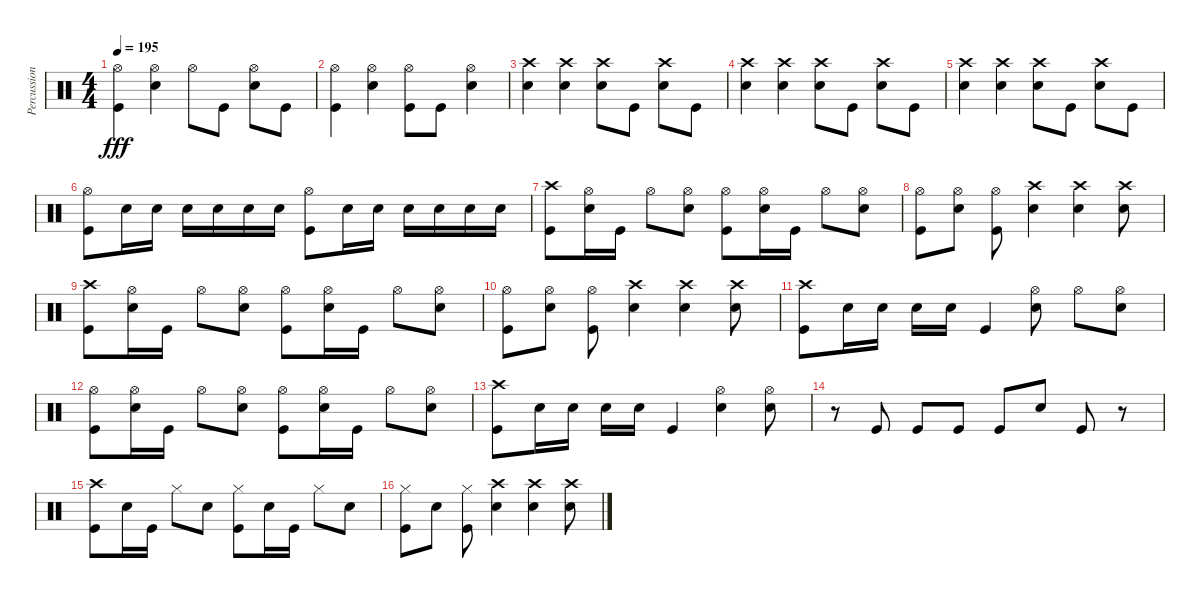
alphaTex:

\track ("Percussions" "Percussion") {instrument percussion}
\staff {score}
\articulation defaults
\ts (4 4)
\tempo 195
\clef neutral
\ks c
("Hi-Hat (open)" "Kick (hit)").4{dy fff} ("Hi-Hat (open)" "Electric Snare (hit)").4 "Hi-Hat (open)".8 "Kick (hit)".8 ("Hi-Hat (open)" "Electric Snare (hit)").8 "Kick (hit)".8 |
("Hi-Hat (open)" "Kick (hit)").4 ("Hi-Hat (open)" "Electric Snare (hit)").4 ("Hi-Hat (open)" "Kick (hit)").8 "Kick (hit)".8 ("Hi-Hat (open)" "Electric Snare (hit)").4 |
("Crash high (hit)" "Electric Snare (hit)").4 ("Crash high (hit)" "Electric Snare (hit)").4 ("Crash high (hit)" "Electric Snare (hit)").8 "Kick (hit)".8 ("Crash high (hit)" "Electric Snare (hit)").8 "Kick (hit)".8 |
("Crash high (hit)" "Electric Snare (hit)").4 ("Crash high (hit)" "Electric Snare (hit)").4 ("Crash high (hit)" "Electric Snare (hit)").8 "Kick (hit)".8 ("Crash high (hit)" "Electric Snare (hit)").8 "Kick (hit)".8 |
("Crash high (hit)" "Electric Snare (hit)").4 ("Crash high (hit)" "Electric Snare (hit)").4 ("Crash high (hit)" "Electric Snare (hit)").8 "Kick (hit)".8 ("Crash high (hit)" "Electric Snare (hit)").8 "Kick (hit)".8 |
("Hi-Hat (open)" "Kick (hit)").8 "Electric Snare (hit)".16 "Electric Snare (hit)".16 "Electric Snare (hit)".16 "Electric Snare (hit)".16 "Electric Snare (hit)".16 "Electric Snare (hit)".16 ("Hi-Hat (open)" "Kick (hit)").8 "Electric Snare (hit)".16 "Electric Snare (hit)".16 "Electric Snare (hit)".16 "Electric Snare (hit)".16 "Electric Snare (hit)".16 "Electric Snare (hit)".16 |
("Crash high (hit)" "Kick (hit)").8 ("Hi-Hat (open)" "Electric Snare (hit)").16 "Kick (hit)".16 "Hi-Hat (open)".8 ("Hi-Hat (open)" "Electric Snare (hit)").8 ("Hi-Hat (open)" "Kick (hit)").8 ("Hi-Hat (open)" "Electric Snare (hit)").16 "Kick (hit)".16 "Hi-Hat (open)".8 ("Hi-Hat (open)" "Electric Snare (hit)").8 |
("Hi-Hat (open)" "Kick (hit)").8 ("Hi-Hat (open)" "Electric Snare (hit)").8 ("Hi-Hat (open)" "Kick (hit)").8 ("Crash high (hit)" "Electric Snare (hit)").4 ("Crash high (hit)" "Electric Snare (hit)").4 ("Crash high (hit)" "Electric Snare (hit)").8 |
("Crash high (hit)" "Kick (hit)").8 ("Hi-Hat (open)" "Electric Snare (hit)").16 "Kick (hit)".16 "Hi-Hat (open)".8 ("Hi-Hat (open)" "Electric Snare (hit)").8 ("Hi-Hat (open)" "Kick (hit)").8 ("Hi-Hat (open)" "Electric Snare (hit)").16 "Kick (hit)".16 "Hi-Hat (open)".8 ("Hi-Hat (open)" "Electric Snare (hit)").8 |
("Hi-Hat (open)" "Kick (hit)").8 ("Hi-Hat (open)" "Electric Snare (hit)").8 ("Hi-Hat (open)" "Kick (hit)").8 ("Crash high (hit)" "Electric Snare (hit)").4 ("Crash high (hit)" "Electric Snare (hit)").4 ("Crash high (hit)" "Electric Snare (hit)").8 |
("Crash high (hit)" "Kick (hit)").8 "Electric Snare (hit)".16 "Electric Snare (hit)".16 "Electric Snare (hit)".16 "Electric Snare (hit)".16 "Kick (hit)".4 ("Hi-Hat (open)" "Electric Snare (hit)").8 "Hi-Hat (open)".8 ("Hi-Hat (open)" "Electric Snare (hit)").8 |
("Hi-Hat (open)" "Kick (hit)").8 ("Hi-Hat (open)" "Electric Snare (hit)").16 "Kick (hit)".16 "Hi-Hat (open)".8 ("Hi-Hat (open)" "Electric Snare (hit)").8 ("Hi-Hat (open)" "Kick (hit)").8 ("Hi-Hat (open)" "Electric Snare (hit)").16 "Kick (hit)".16 "Hi-Hat (open)".8 ("Hi-Hat (open)" "Electric Snare (hit)").8 |
("Crash high (hit)" "Kick (hit)").8 "Electric Snare (hit)".16 "Electric Snare (hit)".16 "Electric Snare (hit)".16 "Electric Snare (hit)".16 "Kick (hit)".4 ("Hi-Hat (open)" "Electric Snare (hit)").4 ("Hi-Hat (open)" "Electric Snare (hit)").8 |
r.8 "Kick (hit)".8 "Kick (hit)".8 "Kick (hit)".8 "Kick (hit)".8 "Electric Snare (hit)".8 "Kick (hit)".8 r.8 |
("Crash high (hit)" "Kick (hit)").8 "Electric Snare (hit)".16 "Kick (hit)".16 "Hi-Hat (closed)".8 "Electric Snare (hit)".8 ("Hi-Hat (closed)" "Kick (hit)").8 "Electric Snare (hit)".16 "Kick (hit)".16 "Hi-Hat (closed)".8 "Electric Snare (hit)".8 |
("Hi-Hat (closed)" "Kick (hit)").8 "Electric Snare (hit)".8 ("Hi-Hat (closed)" "Kick (hit)").8 ("Crash high (hit)" "Electric Snare (hit)").4 ("Crash high (hit)" "Electric Snare (hit)").4 ("Crash high (hit)" "Electric Snare (hit)").8
